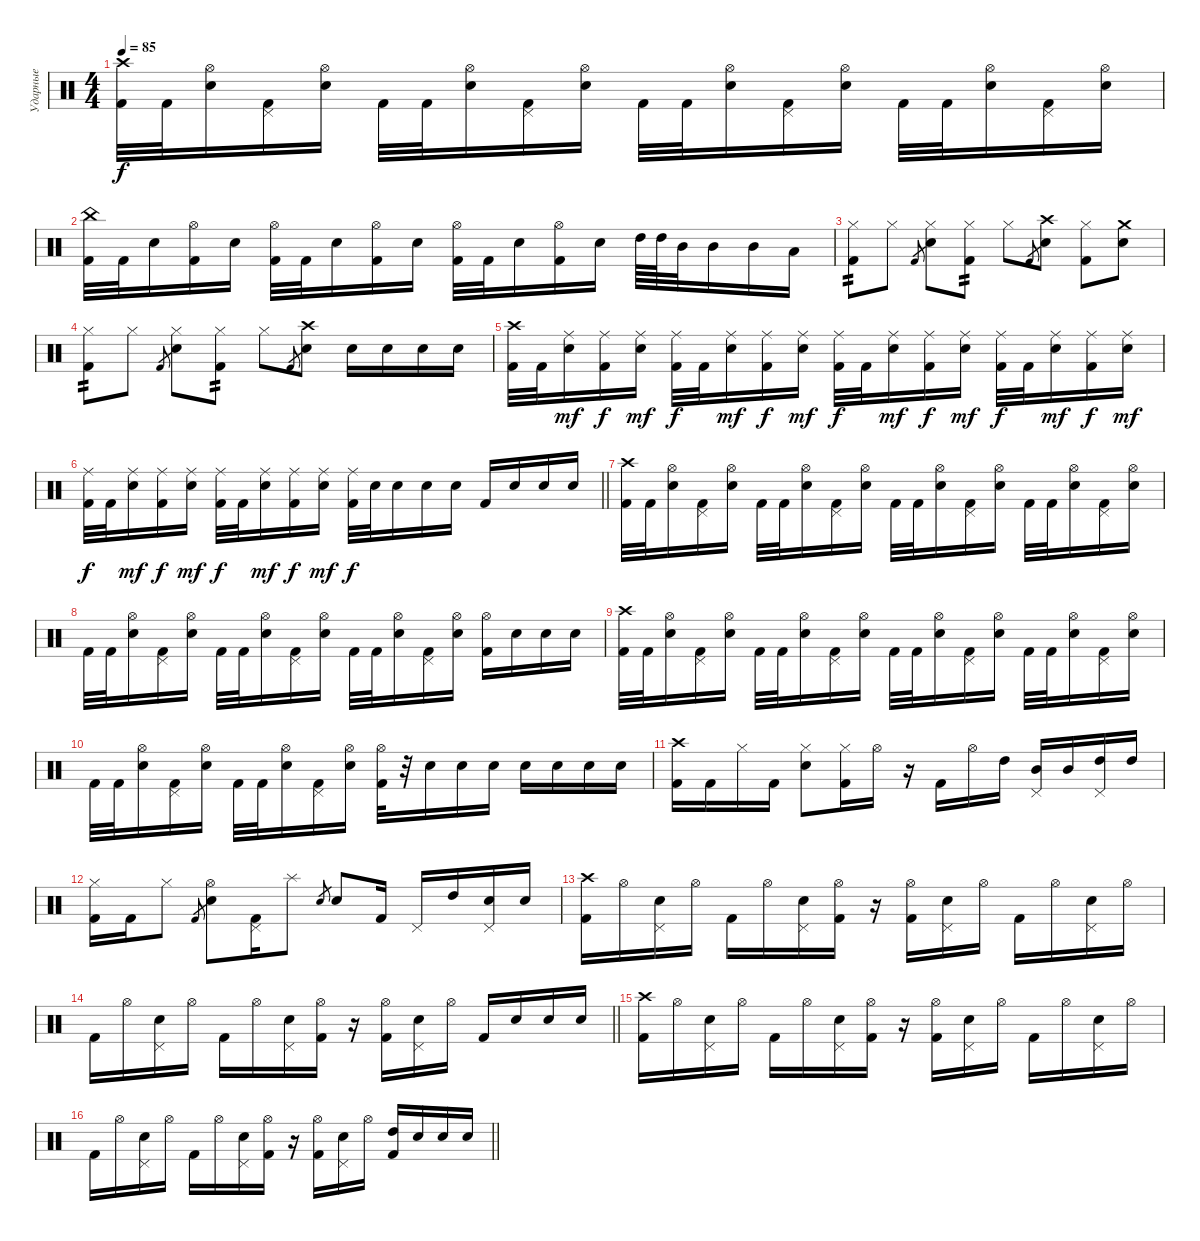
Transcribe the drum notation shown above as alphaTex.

\track ("Ударные" "Ударные") {instrument percussion}
\staff {score}
\articulation defaults
\ts (4 4)
\tempo 85
\clef neutral
\ks c
("Kick (hit) 2" "Crash high (hit)").32{dy f} "Kick (hit) 2".32 ("Electric Snare (hit)" "Hi-Hat (open)").16 ("Kick (hit) 2" "Pedal Hi-Hat (hit)").16 ("Electric Snare (hit)" "Hi-Hat (open)").16 "Kick (hit) 2".32 "Kick (hit) 2".32 ("Electric Snare (hit)" "Hi-Hat (open)").16 ("Kick (hit) 2" "Pedal Hi-Hat (hit)").16 ("Electric Snare (hit)" "Hi-Hat (open)").16 "Kick (hit) 2".32 "Kick (hit) 2".32 ("Electric Snare (hit)" "Hi-Hat (open)").16 ("Kick (hit) 2" "Pedal Hi-Hat (hit)").16 ("Electric Snare (hit)" "Hi-Hat (open)").16 "Kick (hit) 2".32 "Kick (hit) 2".32 ("Electric Snare (hit)" "Hi-Hat (open)").16 ("Kick (hit) 2" "Pedal Hi-Hat (hit)").16 ("Electric Snare (hit)" "Hi-Hat (open)").16 |
("Kick (hit) 2" "China (hit)").32 "Kick (hit) 2".32 "Electric Snare (hit)".16 ("Kick (hit) 2" "Hi-Hat (open)").16 "Electric Snare (hit)".16 ("Kick (hit) 2" "Hi-Hat (open)").32 "Kick (hit) 2".32 "Electric Snare (hit)".16 ("Kick (hit) 2" "Hi-Hat (open)").16 "Electric Snare (hit)".16 ("Kick (hit) 2" "Hi-Hat (open)").32 "Kick (hit) 2".32 "Electric Snare (hit)".16 ("Kick (hit) 2" "Hi-Hat (open)").16 "Electric Snare (hit)".16 "High Tom (hit)".64 "High Tom (hit)".64 "Mid Tom (hit)".32 "Mid Tom (hit)".16 "Mid Tom (hit)".16 "Low Floor Tom (hit)".16 |
("Kick (hit) 2" "Hi-Hat (closed)").8{tp 2} "Hi-Hat (closed)".8 "Kick (hit) 2".8{gr} ("Electric Snare (hit)" "Hi-Hat (closed)").8 ("Kick (hit) 2" "Hi-Hat (closed)").8{tp 2} "Hi-Hat (closed)".8 "Kick (hit) 2".8{gr} ("Electric Snare (hit)" "Crash high (hit)").8 ("Kick (hit) 2" "Hi-Hat (closed)").8 ("Electric Snare (hit)" "Crash medium (hit)").8 |
("Kick (hit) 2" "Hi-Hat (closed)").8{tp 2} "Hi-Hat (closed)".8 "Kick (hit) 2".8{gr} ("Electric Snare (hit)" "Hi-Hat (closed)").8 ("Kick (hit) 2" "Hi-Hat (closed)").8{tp 2} "Hi-Hat (closed)".8 "Kick (hit) 2".8{gr} ("Electric Snare (hit)" "Crash high (hit)").8 "Electric Snare (hit)".16 "Electric Snare (hit)".16 "Electric Snare (hit)".16 "Electric Snare (hit)".16 |
("Kick (hit) 2" "Crash high (hit)").32 "Kick (hit) 2".32 ("Electric Snare (hit)" "Ride (middle)").16{dy mf} ("Kick (hit) 2" "Ride (middle)").16{dy f} ("Electric Snare (hit)" "Ride (middle)").16{dy mf} ("Kick (hit) 2" "Ride (middle)").32{dy f} "Kick (hit) 2".32 ("Electric Snare (hit)" "Ride (middle)").16{dy mf} ("Kick (hit) 2" "Ride (middle)").16{dy f} ("Electric Snare (hit)" "Ride (middle)").16{dy mf} ("Kick (hit) 2" "Ride (middle)").32{dy f} "Kick (hit) 2".32 ("Electric Snare (hit)" "Ride (middle)").16{dy mf} ("Kick (hit) 2" "Ride (middle)").16{dy f} ("Electric Snare (hit)" "Ride (middle)").16{dy mf} ("Kick (hit) 2" "Ride (middle)").32{dy f} "Kick (hit) 2".32 ("Electric Snare (hit)" "Ride (middle)").16{dy mf} ("Kick (hit) 2" "Ride (middle)").16{dy f} ("Electric Snare (hit)" "Ride (middle)").16{dy mf} |
\barLineRight lightlight
("Kick (hit) 2" "Ride (middle)").32{dy f} "Kick (hit) 2".32 ("Electric Snare (hit)" "Ride (middle)").16{dy mf} ("Kick (hit) 2" "Ride (middle)").16{dy f} ("Electric Snare (hit)" "Ride (middle)").16{dy mf} ("Kick (hit) 2" "Ride (middle)").32{dy f} "Kick (hit) 2".32 ("Electric Snare (hit)" "Ride (middle)").16{dy mf} ("Kick (hit) 2" "Ride (middle)").16{dy f} ("Electric Snare (hit)" "Ride (middle)").16{dy mf} ("Kick (hit) 2" "Ride (middle)").32{dy f} "Electric Snare (hit)".32 "Electric Snare (hit)".16 "Electric Snare (hit)".16 "Electric Snare (hit)".16 "Kick (hit) 2".16 "Electric Snare (hit)".16 "Electric Snare (hit)".16 "Electric Snare (hit)".16 |
("Kick (hit) 2" "Crash high (hit)").32 "Kick (hit) 2".32 ("Electric Snare (hit)" "Hi-Hat (open)").16 ("Kick (hit) 2" "Pedal Hi-Hat (hit)").16 ("Electric Snare (hit)" "Hi-Hat (open)").16 "Kick (hit) 2".32 "Kick (hit) 2".32 ("Electric Snare (hit)" "Hi-Hat (open)").16 ("Kick (hit) 2" "Pedal Hi-Hat (hit)").16 ("Electric Snare (hit)" "Hi-Hat (open)").16 "Kick (hit) 2".32 "Kick (hit) 2".32 ("Electric Snare (hit)" "Hi-Hat (open)").16 ("Kick (hit) 2" "Pedal Hi-Hat (hit)").16 ("Electric Snare (hit)" "Hi-Hat (open)").16 "Kick (hit) 2".32 "Kick (hit) 2".32 ("Electric Snare (hit)" "Hi-Hat (open)").16 ("Kick (hit) 2" "Pedal Hi-Hat (hit)").16 ("Electric Snare (hit)" "Hi-Hat (open)").16 |
"Kick (hit) 2".32 "Kick (hit) 2".32 ("Electric Snare (hit)" "Hi-Hat (open)").16 ("Kick (hit) 2" "Pedal Hi-Hat (hit)").16 ("Electric Snare (hit)" "Hi-Hat (open)").16 "Kick (hit) 2".32 "Kick (hit) 2".32 ("Electric Snare (hit)" "Hi-Hat (open)").16 ("Kick (hit) 2" "Pedal Hi-Hat (hit)").16 ("Electric Snare (hit)" "Hi-Hat (open)").16 "Kick (hit) 2".32 "Kick (hit) 2".32 ("Electric Snare (hit)" "Hi-Hat (open)").16 ("Kick (hit) 2" "Pedal Hi-Hat (hit)").16 ("Electric Snare (hit)" "Hi-Hat (open)").16 ("Kick (hit) 2" "Hi-Hat (open)").16 "Electric Snare (hit)".16 "Electric Snare (hit)".16 "Electric Snare (hit)".16 |
("Kick (hit) 2" "Crash high (hit)").32 "Kick (hit) 2".32 ("Electric Snare (hit)" "Hi-Hat (open)").16 ("Kick (hit) 2" "Pedal Hi-Hat (hit)").16 ("Electric Snare (hit)" "Hi-Hat (open)").16 "Kick (hit) 2".32 "Kick (hit) 2".32 ("Electric Snare (hit)" "Hi-Hat (open)").16 ("Kick (hit) 2" "Pedal Hi-Hat (hit)").16 ("Electric Snare (hit)" "Hi-Hat (open)").16 "Kick (hit) 2".32 "Kick (hit) 2".32 ("Electric Snare (hit)" "Hi-Hat (open)").16 ("Kick (hit) 2" "Pedal Hi-Hat (hit)").16 ("Electric Snare (hit)" "Hi-Hat (open)").16 "Kick (hit) 2".32 "Kick (hit) 2".32 ("Electric Snare (hit)" "Hi-Hat (open)").16 ("Kick (hit) 2" "Pedal Hi-Hat (hit)").16 ("Electric Snare (hit)" "Hi-Hat (open)").16 |
"Kick (hit) 2".32 "Kick (hit) 2".32 ("Electric Snare (hit)" "Hi-Hat (open)").16 ("Kick (hit) 2" "Pedal Hi-Hat (hit)").16 ("Electric Snare (hit)" "Hi-Hat (open)").16 "Kick (hit) 2".32 "Kick (hit) 2".32 ("Electric Snare (hit)" "Hi-Hat (open)").16 ("Kick (hit) 2" "Pedal Hi-Hat (hit)").16 ("Electric Snare (hit)" "Hi-Hat (open)").16 ("Kick (hit) 2" "Hi-Hat (open)").32 r.32 "Electric Snare (hit)".16 "Electric Snare (hit)".16 "Electric Snare (hit)".16 "Electric Snare (hit)".16 "Electric Snare (hit)".16 "Electric Snare (hit)".16 "Electric Snare (hit)".16 |
("Kick (hit) 2" "Crash high (hit)").16 "Kick (hit) 2".16 "Hi-Hat (closed)".16 "Kick (hit) 2".16 ("Electric Snare (hit)" "Hi-Hat (closed)").8 ("Kick (hit) 2" "Hi-Hat (closed)").16 "Hi-Hat (open)".16 r.16 "Kick (hit) 2".16 "Hi-Hat (open)".16 "High Tom (hit)".16 ("Pedal Hi-Hat (hit)" "Mid Tom (hit)").16 "Mid Tom (hit)".16 ("Pedal Hi-Hat (hit)" "High Tom (hit)").16 "High Tom (hit)".16 |
("Kick (hit) 2" "Hi-Hat (closed)").16 "Kick (hit) 2".16 "Hi-Hat (closed)".8 "Kick (hit) 2".8{gr} ("Electric Snare (hit)" "Hi-Hat (open)").8 ("Kick (hit) 2" "Pedal Hi-Hat (hit)").16 "Splash (hit)".8 "Electric Snare (hit)".8{gr} "Electric Snare (hit)".8 "Kick (hit) 2".16 "Pedal Hi-Hat (hit)".16 "High Tom (hit)".16 ("Pedal Hi-Hat (hit)" "Electric Snare (hit)").16 "Electric Snare (hit)".16 |
("Kick (hit) 2" "Crash high (hit)").16 "Hi-Hat (open)".16 ("Pedal Hi-Hat (hit)" "Electric Snare (hit)").16 "Hi-Hat (open)".16 "Kick (hit) 2".16 "Hi-Hat (open)".16 ("Pedal Hi-Hat (hit)" "Electric Snare (hit)").16 ("Kick (hit) 2" "Hi-Hat (open)").16 r.16 ("Kick (hit) 2" "Hi-Hat (open)").16 ("Pedal Hi-Hat (hit)" "Electric Snare (hit)").16 "Hi-Hat (open)".16 "Kick (hit) 2".16 "Hi-Hat (open)".16 ("Pedal Hi-Hat (hit)" "Electric Snare (hit)").16 "Hi-Hat (open)".16 |
\barLineRight lightlight "Kick (hit) 2".16 "Hi-Hat (open)".16
("Pedal Hi-Hat (hit)" "Electric Snare (hit)").16 "Hi-Hat (open)".16 "Kick (hit) 2".16 "Hi-Hat (open)".16 ("Pedal Hi-Hat (hit)" "Electric Snare (hit)").16 ("Kick (hit) 2" "Hi-Hat (open)").16 r.16 ("Kick (hit) 2" "Hi-Hat (open)").16 ("Pedal Hi-Hat (hit)" "Electric Snare (hit)").16 "Hi-Hat (open)".16 "Kick (hit) 2".16 "Electric Snare (hit)".16 "Electric Snare (hit)".16 "Electric Snare (hit)".16 |
("Kick (hit) 2" "Crash high (hit)").16 "Hi-Hat (open)".16 ("Pedal Hi-Hat (hit)" "Electric Snare (hit)").16 "Hi-Hat (open)".16 "Kick (hit) 2".16 "Hi-Hat (open)".16 ("Pedal Hi-Hat (hit)" "Electric Snare (hit)").16 ("Kick (hit) 2" "Hi-Hat (open)").16 r.16 ("Kick (hit) 2" "Hi-Hat (open)").16 ("Pedal Hi-Hat (hit)" "Electric Snare (hit)").16 "Hi-Hat (open)".16 "Kick (hit) 2".16 "Hi-Hat (open)".16 ("Pedal Hi-Hat (hit)" "Electric Snare (hit)").16 "Hi-Hat (open)".16 |
\barLineRight lightlight "Kick (hit) 2".16 "Hi-Hat (open)".16
("Pedal Hi-Hat (hit)" "Electric Snare (hit)").16 "Hi-Hat (open)".16 "Kick (hit) 2".16 "Hi-Hat (open)".16 ("Pedal Hi-Hat (hit)" "Electric Snare (hit)").16 ("Kick (hit) 2" "Hi-Hat (open)").16 r.16 ("Kick (hit) 2" "Hi-Hat (open)").16 ("Pedal Hi-Hat (hit)" "Electric Snare (hit)").16 "Hi-Hat (open)".16 ("Kick (hit) 2" "High Tom (hit)").16 "Electric Snare (hit)".16 "Electric Snare (hit)".16 "Electric Snare (hit)".16
